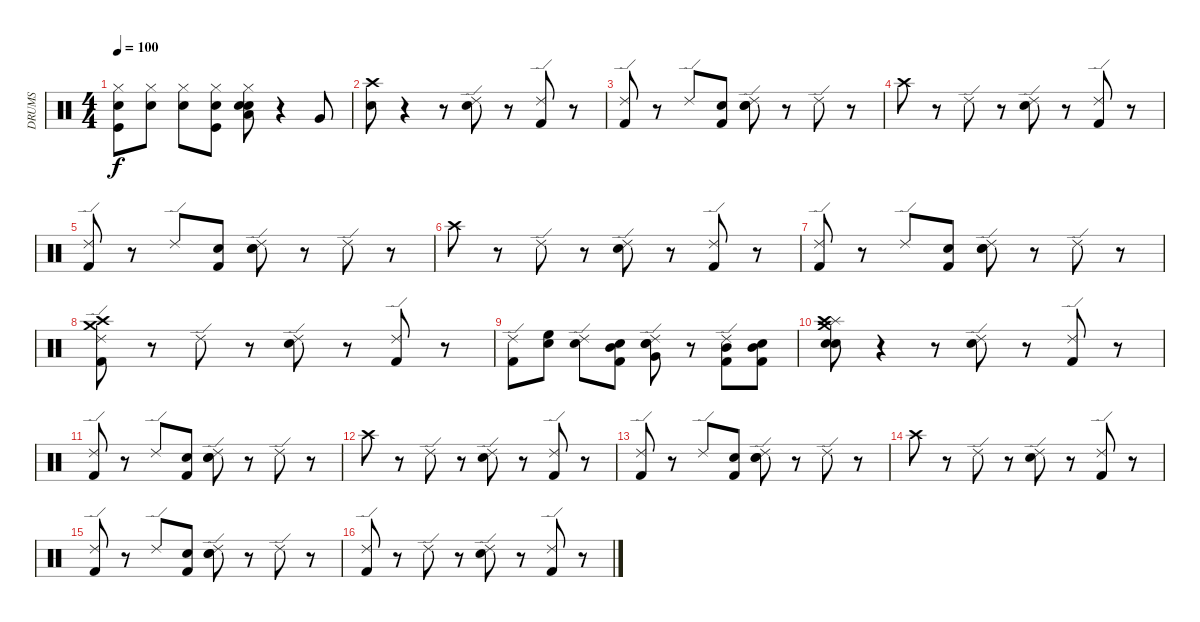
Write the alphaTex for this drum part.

\track ("DRUMS" "DRUMS") {instrument percussion}
\staff {score}
\articulation defaults
\ts (4 4)
\tempo 100
\clef neutral
\ks c
("Snare (hit)" "Kick (hit)" "Hi-Hat (closed)").8{dy f} ("Snare (hit)" "Hi-Hat (closed)").8 ("Snare (hit)" "Hi-Hat (closed)").8 ("Snare (hit)" "Kick (hit)" "Hi-Hat (closed)").8 ("Snare (hit)" "Low Tom (hit)" "Snare (hit) 2" "Hi-Hat (closed)").8 r.4 "Very Low Tom (hit)".8 |
("Snare (hit)" "Crash high (hit)").8 r.4 r.8 ("Snare (hit) 2" "Ride (edge) 2").8 r.8 ("Kick (hit) 2" "Ride (edge) 2").8 r.8 |
("Kick (hit) 2" "Ride (edge) 2").8 r.8 "Ride (edge) 2".8 ("Snare (hit)" "Kick (hit) 2").8 ("Snare (hit)" "Snare (hit) 2" "Ride (edge) 2").8 r.8 "Ride (edge) 2".8 r.8 |
"Crash high (hit)".8 r.8 "Ride (edge) 2".8 r.8 ("Snare (hit) 2" "Ride (edge) 2").8 r.8 ("Kick (hit) 2" "Ride (edge) 2").8 r.8 |
("Kick (hit) 2" "Ride (edge) 2").8 r.8 "Ride (edge) 2".8 ("Snare (hit)" "Kick (hit) 2").8 ("Snare (hit)" "Snare (hit) 2" "Ride (edge) 2").8 r.8 "Ride (edge) 2".8 r.8 |
"Crash high (hit)".8 r.8 "Ride (edge) 2".8 r.8 ("Snare (hit) 2" "Ride (edge) 2").8 r.8 ("Kick (hit) 2" "Ride (edge) 2").8 r.8 |
("Ride (edge) 2" "Kick (hit) 2").8 r.8 "Ride (edge) 2".8 ("Snare (hit)" "Kick (hit) 2").8 ("Snare (hit)" "Ride (edge) 2" "Snare (hit) 2").8 r.8 "Ride (edge) 2".8 r.8 |
("Crash high (hit)" "Crash medium (hit)" "Kick (hit) 2" "Ride (edge) 2").8 r.8 "Ride (edge) 2".8 r.8 ("Snare (hit) 2" "Ride (edge) 2").8 r.8 ("Kick (hit) 2" "Ride (edge) 2").8 r.8 |
("Kick (hit) 2" "Ride (edge) 2").8 ("Snare (hit)" "High Floor Tom (hit)").8 ("Snare (hit)" "Ride (edge) 2").8 ("Snare (hit)" "Mid Tom (hit)" "Kick (hit) 2").8 ("Snare (hit)" "Very Low Tom (hit)" "Snare (hit) 2" "Ride (edge) 2").8 r.8 ("Mid Tom (hit)" "Kick (hit) 2" "Ride (edge) 2").8 ("Snare (hit)" "Mid Tom (hit)" "Kick (hit) 2").8 |
("Snare (hit)" "Snare (hit) 2" "Crash medium (hit)" "Splash (hit)" "Crash high (hit)").8 r.4 r.8 ("Snare (hit) 2" "Ride (edge) 2").8 r.8 ("Kick (hit) 2" "Ride (edge) 2").8 r.8 |
("Kick (hit) 2" "Ride (edge) 2").8 r.8 "Ride (edge) 2".8 ("Snare (hit)" "Kick (hit) 2").8 ("Snare (hit)" "Snare (hit) 2" "Ride (edge) 2").8 r.8 "Ride (edge) 2".8 r.8 |
"Crash high (hit)".8 r.8 "Ride (edge) 2".8 r.8 ("Snare (hit) 2" "Ride (edge) 2").8 r.8 ("Kick (hit) 2" "Ride (edge) 2").8 r.8 |
("Kick (hit) 2" "Ride (edge) 2").8 r.8 "Ride (edge) 2".8 ("Snare (hit)" "Kick (hit) 2").8 ("Snare (hit)" "Snare (hit) 2" "Ride (edge) 2").8 r.8 "Ride (edge) 2".8 r.8 |
"Crash high (hit)".8 r.8 "Ride (edge) 2".8 r.8 ("Snare (hit) 2" "Ride (edge) 2").8 r.8 ("Kick (hit) 2" "Ride (edge) 2").8 r.8 |
("Ride (edge) 2" "Kick (hit) 2").8 r.8 "Ride (edge) 2".8 ("Snare (hit)" "Kick (hit) 2").8 ("Snare (hit)" "Ride (edge) 2" "Snare (hit) 2").8 r.8 "Ride (edge) 2".8 r.8 |
("Kick (hit) 2" "Ride (edge) 2").8 r.8 "Ride (edge) 2".8 r.8 ("Snare (hit) 2" "Ride (edge) 2").8 r.8 ("Kick (hit) 2" "Ride (edge) 2").8 r.8
